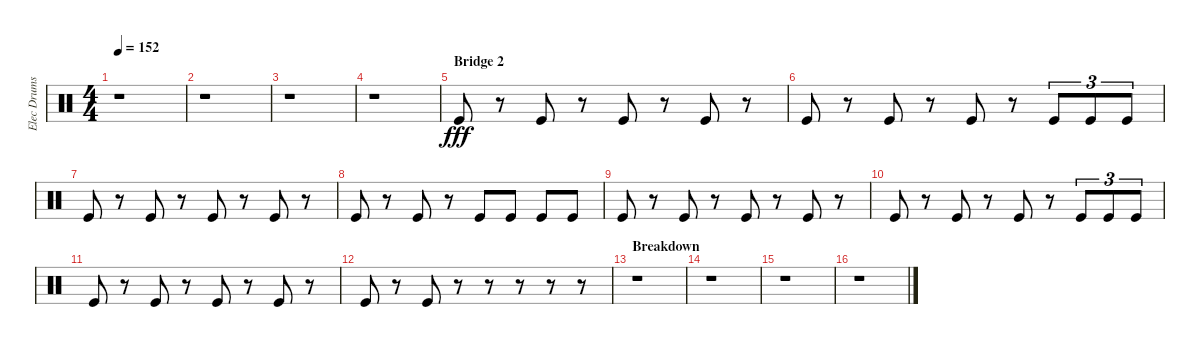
\track ("Elec Drums" "Elec Drums") {instrument percussion}
\staff {score}
\articulation defaults
\ts (4 4)
\tempo 152
\clef neutral
\ks c
r.1{dy f} |
r.1 |
r.1 |
r.1 |
\section ("" "Bridge 2")
"Kick (hit)".8{dy fff} r.8 "Kick (hit)".8 r.8 "Kick (hit)".8 r.8 "Kick (hit)".8 r.8 |
"Kick (hit)".8 r.8 "Kick (hit)".8 r.8 "Kick (hit)".8 r.8 "Kick (hit)".8{tu (3 2)} "Kick (hit)".8{tu (3 2)} "Kick (hit)".8{tu (3 2)} |
"Kick (hit)".8 r.8 "Kick (hit)".8 r.8 "Kick (hit)".8 r.8 "Kick (hit)".8 r.8 |
"Kick (hit)".8 r.8 "Kick (hit)".8 r.8 "Kick (hit)".8 "Kick (hit)".8 "Kick (hit)".8 "Kick (hit)".8 |
"Kick (hit)".8 r.8 "Kick (hit)".8 r.8 "Kick (hit)".8 r.8 "Kick (hit)".8 r.8 |
"Kick (hit)".8 r.8 "Kick (hit)".8 r.8 "Kick (hit)".8 r.8 "Kick (hit)".8{tu (3 2)} "Kick (hit)".8{tu (3 2)} "Kick (hit)".8{tu (3 2)} |
"Kick (hit)".8 r.8 "Kick (hit)".8 r.8 "Kick (hit)".8 r.8 "Kick (hit)".8 r.8 |
"Kick (hit)".8 r.8 "Kick (hit)".8 r.8 r.8 r.8 r.8 r.8 |
\section ("" "Breakdown")
r.1 |
r.1 |
r.1 |
r.1
